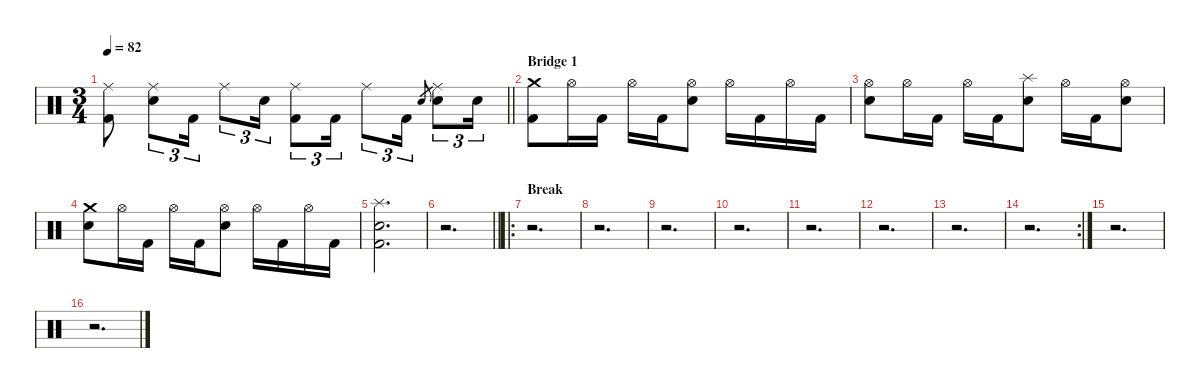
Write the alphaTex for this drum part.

\defaultSystemsLayout 4
\hideDynamics
\bracketExtendMode nobrackets
\singleTrackTrackNamePolicy hidden
\multiTrackTrackNamePolicy hidden
\firstSystemTrackNameMode fullname
\otherSystemsTrackNameOrientation horizontal
\track ("Drums" "drm.") {defaultSystemsLayout 4 instrument percussion}
\staff {score}
\articulation defaults
\ts (3 4)
\tempo 82
\clef neutral
\barLineRight lightlight
\ks c
("Ride (middle)" "Kick (hit) 2").8{dy f beam Down} ("Ride (middle)" "Snare (hit) 2").8{tu (3 2) beam Down} "Kick (hit) 2".16{tu (3 2) beam Down} "Ride (middle)".8{tu (3 2) beam Down} "Snare (hit) 2".16{tu (3 2) beam Down} ("Ride (middle)" "Kick (hit) 2").8{tu (3 2) beam Down} "Kick (hit) 2".16{tu (3 2) beam Down} "Ride (middle)".8{tu (3 2) beam Down} "Kick (hit) 2".16{tu (3 2) beam Down} "Electric Snare (hit)".8{gr dy mf beam Up} ("Ride (middle)" "Snare (hit) 2").8{tu (3 2) dy f beam Down} "Snare (hit) 2".16{tu (3 2) beam Down} |
\section ("" "Bridge 1")
("Crash medium (hit)" "Kick (hit) 2").8{beam Down} "Hi-Hat (open)".16{beam Down} "Kick (hit) 2".16{dy ff beam Down} "Hi-Hat (open)".16{dy f beam Down} "Kick (hit) 2".16{beam Down} ("Hi-Hat (open)" "Snare (hit) 2").8{beam Down} "Hi-Hat (open)".16{beam Down} "Kick (hit) 2".16{beam Down} "Hi-Hat (open)".16{beam Down} "Kick (hit) 2".16{beam Down} |
("Hi-Hat (open)" "Snare (hit) 2").8{beam Down} "Hi-Hat (open)".16{beam Down} "Kick (hit) 2".16{dy ff beam Down} "Hi-Hat (open)".16{dy f beam Down} "Kick (hit) 2".16{beam Down} ("Splash (hit)" "Snare (hit) 2").8{dy fff beam Down} "Hi-Hat (open)".16{dy f beam Down} "Kick (hit) 2".16{beam Down} ("Hi-Hat (open)" "Snare (hit) 2").8{beam Down} |
("Crash medium (hit)" "Snare (hit) 2").8{beam Down} "Hi-Hat (open)".16{beam Down} "Kick (hit) 2".16{dy ff beam Down} "Hi-Hat (open)".16{dy f beam Down} "Kick (hit) 2".16{beam Down} ("Hi-Hat (open)" "Snare (hit) 2").8{beam Down} "Hi-Hat (open)".16{beam Down} "Kick (hit) 2".16{dy ff beam Down} "Hi-Hat (open)".16{dy f beam Down} "Kick (hit) 2".16{beam Down} |
("Splash (hit)" "Snare (hit) 2" "Kick (hit) 2").2{d dy fff beam Down} |
\barLineRight lightlight
r.2{d beam Down} |
\ro
\section ("" "Break")
r.2{d beam Down} |
r.2{d beam Down} |
r.2{d beam Down} |
r.2{d beam Down} |
r.2{d beam Down} |
r.2{d beam Down} |
r.2{d beam Down} |
\rc 2
r.2{d beam Down} |
r.2{d beam Down} |
r.2{d beam Down}
